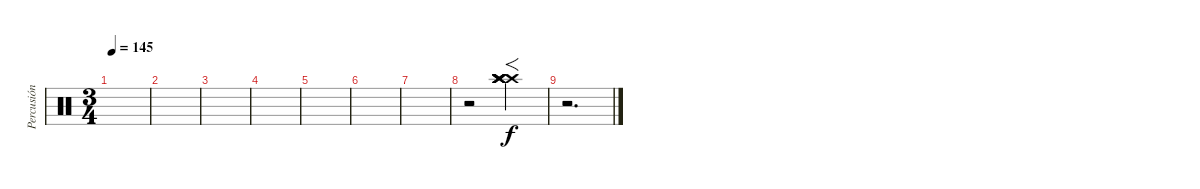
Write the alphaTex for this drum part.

\track ("Percusión" "Percusión") {instrument percussion}
\staff {score}
\articulation defaults
\ts (3 4)
\tempo 145
\clef neutral
\ks c
|
|
|
|
|
|
|
r.2 ("Crash high (hit)" "Crash high (hit)" "Crash high (hit)" "Crash high (hit)" "Crash high (hit)" "Crash high (hit)").4{f} |
r.2{d}
